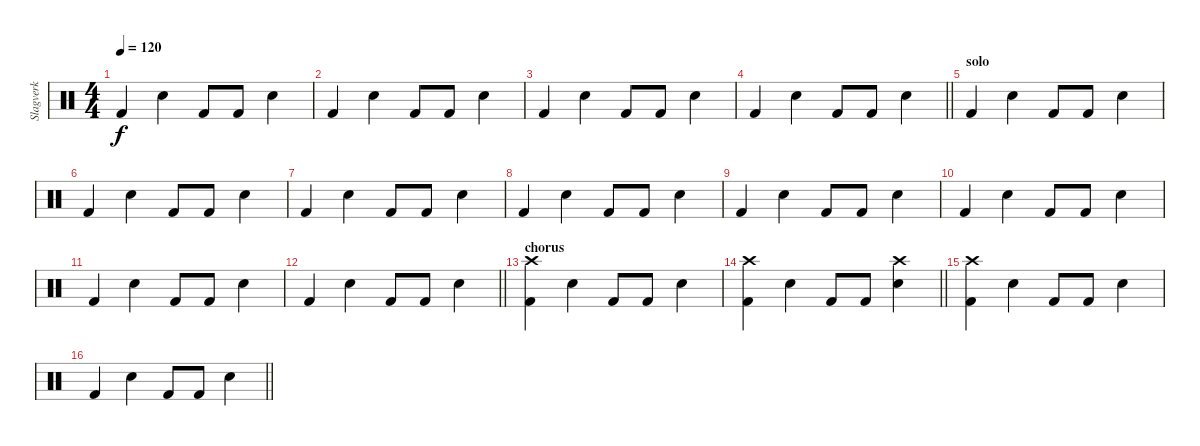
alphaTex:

\track ("Slagverk" "Slagverk") {instrument percussion}
\staff {score}
\articulation defaults
\ts (4 4)
\tempo 120
\clef neutral
\ks c "Kick (hit) 2".4{dy f} "Snare (hit) 2".4 "Kick (hit) 2".8 "Kick (hit) 2".8 "Snare (hit) 2".4
|
"Kick (hit) 2".4 "Snare (hit) 2".4 "Kick (hit) 2".8 "Kick (hit) 2".8 "Snare (hit) 2".4 |
"Kick (hit) 2".4 "Snare (hit) 2".4 "Kick (hit) 2".8 "Kick (hit) 2".8 "Snare (hit) 2".4 |
\barLineRight lightlight "Kick (hit) 2".4 "Snare (hit) 2".4 "Kick (hit) 2".8 "Kick (hit) 2".8 "Snare (hit) 2".4
|
\section ("" "solo")
"Kick (hit) 2".4 "Snare (hit) 2".4 "Kick (hit) 2".8 "Kick (hit) 2".8 "Snare (hit) 2".4 |
"Kick (hit) 2".4 "Snare (hit) 2".4 "Kick (hit) 2".8 "Kick (hit) 2".8 "Snare (hit) 2".4 |
"Kick (hit) 2".4 "Snare (hit) 2".4 "Kick (hit) 2".8 "Kick (hit) 2".8 "Snare (hit) 2".4 |
"Kick (hit) 2".4 "Snare (hit) 2".4 "Kick (hit) 2".8 "Kick (hit) 2".8 "Snare (hit) 2".4 |
"Kick (hit) 2".4 "Snare (hit) 2".4 "Kick (hit) 2".8 "Kick (hit) 2".8 "Snare (hit) 2".4 |
"Kick (hit) 2".4 "Snare (hit) 2".4 "Kick (hit) 2".8 "Kick (hit) 2".8 "Snare (hit) 2".4 |
"Kick (hit) 2".4 "Snare (hit) 2".4 "Kick (hit) 2".8 "Kick (hit) 2".8 "Snare (hit) 2".4 |
\barLineRight lightlight "Kick (hit) 2".4 "Snare (hit) 2".4 "Kick (hit) 2".8 "Kick (hit) 2".8 "Snare (hit) 2".4
|
\section ("" "chorus")
("Kick (hit) 2" "Crash high (hit)").4 "Snare (hit) 2".4 "Kick (hit) 2".8 "Kick (hit) 2".8 "Snare (hit) 2".4 |
\barLineRight lightlight
("Kick (hit) 2" "Crash high (hit)").4 "Snare (hit) 2".4 "Kick (hit) 2".8 "Kick (hit) 2".8 ("Snare (hit) 2" "Crash high (hit)").4 |
("Kick (hit) 2" "Crash high (hit)").4 "Snare (hit) 2".4 "Kick (hit) 2".8 "Kick (hit) 2".8 "Snare (hit) 2".4 |
\barLineRight lightlight "Kick (hit) 2".4 "Snare (hit) 2".4 "Kick (hit) 2".8 "Kick (hit) 2".8 "Snare (hit) 2".4
